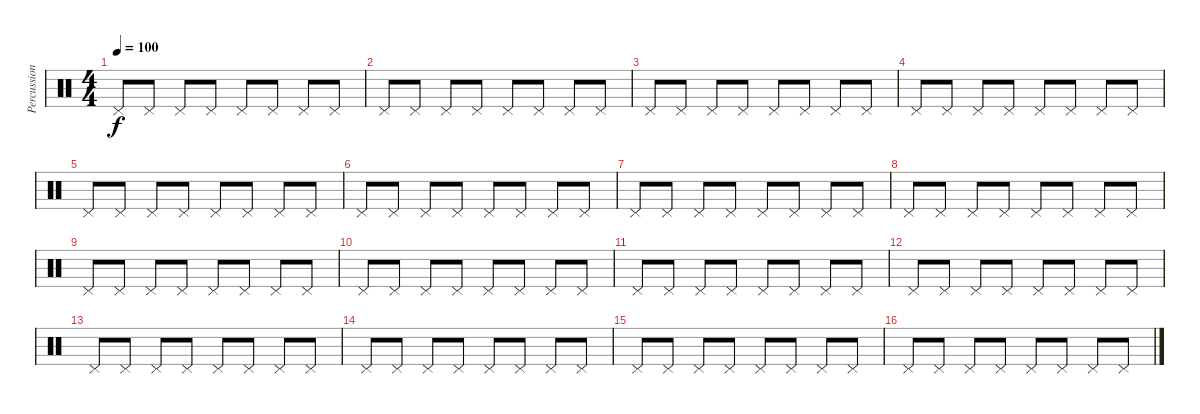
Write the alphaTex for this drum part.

\track ("Percussion" "Percussion") {instrument percussion}
\staff {score}
\articulation defaults
\ts (4 4)
\tempo 100
\clef neutral
\ks c "Pedal Hi-Hat (hit)".8{dy f} "Pedal Hi-Hat (hit)".8 "Pedal Hi-Hat (hit)".8 "Pedal Hi-Hat (hit)".8 "Pedal Hi-Hat (hit)".8 "Pedal Hi-Hat (hit)".8 "Pedal Hi-Hat (hit)".8 "Pedal Hi-Hat (hit)".8
|
"Pedal Hi-Hat (hit)".8 "Pedal Hi-Hat (hit)".8 "Pedal Hi-Hat (hit)".8 "Pedal Hi-Hat (hit)".8 "Pedal Hi-Hat (hit)".8 "Pedal Hi-Hat (hit)".8 "Pedal Hi-Hat (hit)".8 "Pedal Hi-Hat (hit)".8 |
"Pedal Hi-Hat (hit)".8 "Pedal Hi-Hat (hit)".8 "Pedal Hi-Hat (hit)".8 "Pedal Hi-Hat (hit)".8 "Pedal Hi-Hat (hit)".8 "Pedal Hi-Hat (hit)".8 "Pedal Hi-Hat (hit)".8 "Pedal Hi-Hat (hit)".8 |
"Pedal Hi-Hat (hit)".8 "Pedal Hi-Hat (hit)".8 "Pedal Hi-Hat (hit)".8 "Pedal Hi-Hat (hit)".8 "Pedal Hi-Hat (hit)".8 "Pedal Hi-Hat (hit)".8 "Pedal Hi-Hat (hit)".8 "Pedal Hi-Hat (hit)".8 |
"Pedal Hi-Hat (hit)".8 "Pedal Hi-Hat (hit)".8 "Pedal Hi-Hat (hit)".8 "Pedal Hi-Hat (hit)".8 "Pedal Hi-Hat (hit)".8 "Pedal Hi-Hat (hit)".8 "Pedal Hi-Hat (hit)".8 "Pedal Hi-Hat (hit)".8 |
"Pedal Hi-Hat (hit)".8 "Pedal Hi-Hat (hit)".8 "Pedal Hi-Hat (hit)".8 "Pedal Hi-Hat (hit)".8 "Pedal Hi-Hat (hit)".8 "Pedal Hi-Hat (hit)".8 "Pedal Hi-Hat (hit)".8 "Pedal Hi-Hat (hit)".8 |
"Pedal Hi-Hat (hit)".8 "Pedal Hi-Hat (hit)".8 "Pedal Hi-Hat (hit)".8 "Pedal Hi-Hat (hit)".8 "Pedal Hi-Hat (hit)".8 "Pedal Hi-Hat (hit)".8 "Pedal Hi-Hat (hit)".8 "Pedal Hi-Hat (hit)".8 |
"Pedal Hi-Hat (hit)".8 "Pedal Hi-Hat (hit)".8 "Pedal Hi-Hat (hit)".8 "Pedal Hi-Hat (hit)".8 "Pedal Hi-Hat (hit)".8 "Pedal Hi-Hat (hit)".8 "Pedal Hi-Hat (hit)".8 "Pedal Hi-Hat (hit)".8 |
"Pedal Hi-Hat (hit)".8 "Pedal Hi-Hat (hit)".8 "Pedal Hi-Hat (hit)".8 "Pedal Hi-Hat (hit)".8 "Pedal Hi-Hat (hit)".8 "Pedal Hi-Hat (hit)".8 "Pedal Hi-Hat (hit)".8 "Pedal Hi-Hat (hit)".8 |
"Pedal Hi-Hat (hit)".8 "Pedal Hi-Hat (hit)".8 "Pedal Hi-Hat (hit)".8 "Pedal Hi-Hat (hit)".8 "Pedal Hi-Hat (hit)".8 "Pedal Hi-Hat (hit)".8 "Pedal Hi-Hat (hit)".8 "Pedal Hi-Hat (hit)".8 |
"Pedal Hi-Hat (hit)".8 "Pedal Hi-Hat (hit)".8 "Pedal Hi-Hat (hit)".8 "Pedal Hi-Hat (hit)".8 "Pedal Hi-Hat (hit)".8 "Pedal Hi-Hat (hit)".8 "Pedal Hi-Hat (hit)".8 "Pedal Hi-Hat (hit)".8 |
"Pedal Hi-Hat (hit)".8 "Pedal Hi-Hat (hit)".8 "Pedal Hi-Hat (hit)".8 "Pedal Hi-Hat (hit)".8 "Pedal Hi-Hat (hit)".8 "Pedal Hi-Hat (hit)".8 "Pedal Hi-Hat (hit)".8 "Pedal Hi-Hat (hit)".8 |
"Pedal Hi-Hat (hit)".8 "Pedal Hi-Hat (hit)".8 "Pedal Hi-Hat (hit)".8 "Pedal Hi-Hat (hit)".8 "Pedal Hi-Hat (hit)".8 "Pedal Hi-Hat (hit)".8 "Pedal Hi-Hat (hit)".8 "Pedal Hi-Hat (hit)".8 |
"Pedal Hi-Hat (hit)".8 "Pedal Hi-Hat (hit)".8 "Pedal Hi-Hat (hit)".8 "Pedal Hi-Hat (hit)".8 "Pedal Hi-Hat (hit)".8 "Pedal Hi-Hat (hit)".8 "Pedal Hi-Hat (hit)".8 "Pedal Hi-Hat (hit)".8 |
"Pedal Hi-Hat (hit)".8 "Pedal Hi-Hat (hit)".8 "Pedal Hi-Hat (hit)".8 "Pedal Hi-Hat (hit)".8 "Pedal Hi-Hat (hit)".8 "Pedal Hi-Hat (hit)".8 "Pedal Hi-Hat (hit)".8 "Pedal Hi-Hat (hit)".8 |
"Pedal Hi-Hat (hit)".8 "Pedal Hi-Hat (hit)".8 "Pedal Hi-Hat (hit)".8 "Pedal Hi-Hat (hit)".8 "Pedal Hi-Hat (hit)".8 "Pedal Hi-Hat (hit)".8 "Pedal Hi-Hat (hit)".8 "Pedal Hi-Hat (hit)".8
